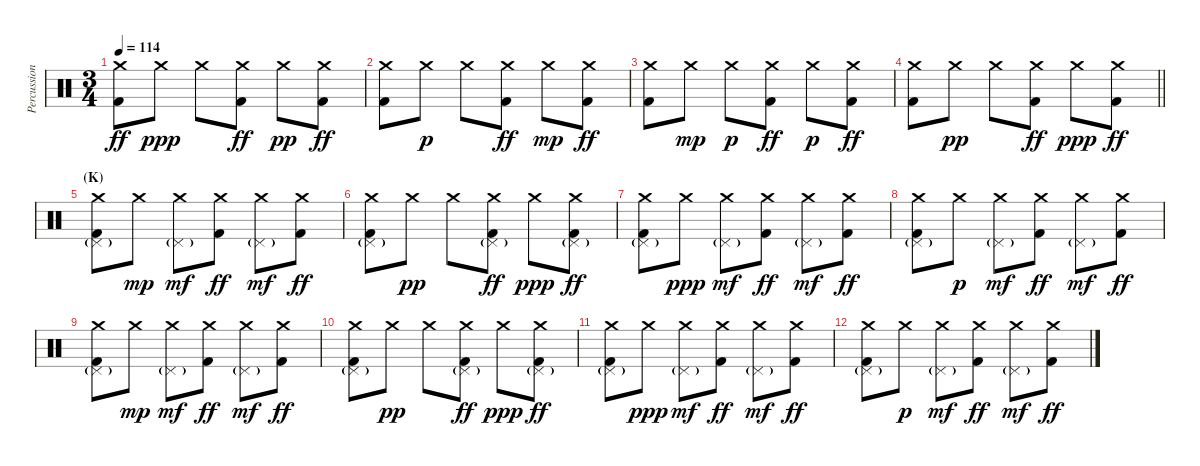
\track ("Percussion 1" "Percussion") {instrument percussion}
\staff {score}
\articulation defaults
\ts (3 4)
\tempo 114
\clef neutral
\ks c
("Crash medium (hit)" "Kick (hit) 2").8{dy ff} "Crash medium (hit)".8{dy ppp} "Crash medium (hit)".8 ("Crash medium (hit)" "Kick (hit) 2").8{dy ff} "Crash medium (hit)".8{dy pp} ("Crash medium (hit)" "Kick (hit) 2").8{dy ff} |
("Crash medium (hit)" "Kick (hit) 2").8 "Crash medium (hit)".8{dy p} "Crash medium (hit)".8 ("Crash medium (hit)" "Kick (hit) 2").8{dy ff} "Crash medium (hit)".8{dy mp} ("Crash medium (hit)" "Kick (hit) 2").8{dy ff} |
("Crash medium (hit)" "Kick (hit) 2").8 "Crash medium (hit)".8{dy mp} "Crash medium (hit)".8{dy p} ("Crash medium (hit)" "Kick (hit) 2").8{dy ff} "Crash medium (hit)".8{dy p} ("Crash medium (hit)" "Kick (hit) 2").8{dy ff} |
\barLineRight lightlight
("Crash medium (hit)" "Kick (hit) 2").8 "Crash medium (hit)".8{dy pp} "Crash medium (hit)".8 ("Crash medium (hit)" "Kick (hit) 2").8{dy ff} "Crash medium (hit)".8{dy ppp} ("Crash medium (hit)" "Kick (hit) 2").8{dy ff} |
\section ("" "(K)")
("Crash medium (hit)" "Pedal Hi-Hat (hit)"{g} "Kick (hit) 2").8 "Crash medium (hit)".8{dy mp} ("Crash medium (hit)" "Pedal Hi-Hat (hit)"{g}).8{dy mf} ("Crash medium (hit)" "Kick (hit) 2").8{dy ff} ("Crash medium (hit)" "Pedal Hi-Hat (hit)"{g}).8{dy mf} ("Crash medium (hit)" "Kick (hit) 2").8{dy ff} |
("Crash medium (hit)" "Pedal Hi-Hat (hit)"{g} "Kick (hit) 2").8 "Crash medium (hit)".8{dy pp} "Crash medium (hit)".8 ("Crash medium (hit)" "Pedal Hi-Hat (hit)"{g} "Kick (hit) 2").8{dy ff} "Crash medium (hit)".8{dy ppp} ("Crash medium (hit)" "Pedal Hi-Hat (hit)"{g} "Kick (hit) 2").8{dy ff} |
("Crash medium (hit)" "Pedal Hi-Hat (hit)"{g} "Kick (hit) 2").8 "Crash medium (hit)".8{dy ppp} ("Crash medium (hit)" "Pedal Hi-Hat (hit)"{g}).8{dy mf} ("Crash medium (hit)" "Kick (hit) 2").8{dy ff} ("Crash medium (hit)" "Pedal Hi-Hat (hit)"{g}).8{dy mf} ("Crash medium (hit)" "Kick (hit) 2").8{dy ff} |
("Crash medium (hit)" "Pedal Hi-Hat (hit)"{g} "Kick (hit) 2").8 "Crash medium (hit)".8{dy p} ("Crash medium (hit)" "Pedal Hi-Hat (hit)"{g}).8{dy mf} ("Crash medium (hit)" "Kick (hit) 2").8{dy ff} ("Crash medium (hit)" "Pedal Hi-Hat (hit)"{g}).8{dy mf} ("Crash medium (hit)" "Kick (hit) 2").8{dy ff} |
("Crash medium (hit)" "Pedal Hi-Hat (hit)"{g} "Kick (hit) 2").8 "Crash medium (hit)".8{dy mp} ("Crash medium (hit)" "Pedal Hi-Hat (hit)"{g}).8{dy mf} ("Crash medium (hit)" "Kick (hit) 2").8{dy ff} ("Crash medium (hit)" "Pedal Hi-Hat (hit)"{g}).8{dy mf} ("Crash medium (hit)" "Kick (hit) 2").8{dy ff} |
("Crash medium (hit)" "Pedal Hi-Hat (hit)"{g} "Kick (hit) 2").8 "Crash medium (hit)".8{dy pp} "Crash medium (hit)".8 ("Crash medium (hit)" "Pedal Hi-Hat (hit)"{g} "Kick (hit) 2").8{dy ff} "Crash medium (hit)".8{dy ppp} ("Crash medium (hit)" "Pedal Hi-Hat (hit)"{g} "Kick (hit) 2").8{dy ff} |
("Crash medium (hit)" "Pedal Hi-Hat (hit)"{g} "Kick (hit) 2").8 "Crash medium (hit)".8{dy ppp} ("Crash medium (hit)" "Pedal Hi-Hat (hit)"{g}).8{dy mf} ("Crash medium (hit)" "Kick (hit) 2").8{dy ff} ("Crash medium (hit)" "Pedal Hi-Hat (hit)"{g}).8{dy mf} ("Crash medium (hit)" "Kick (hit) 2").8{dy ff} |
("Crash medium (hit)" "Pedal Hi-Hat (hit)"{g} "Kick (hit) 2").8 "Crash medium (hit)".8{dy p} ("Crash medium (hit)" "Pedal Hi-Hat (hit)"{g}).8{dy mf} ("Crash medium (hit)" "Kick (hit) 2").8{dy ff} ("Crash medium (hit)" "Pedal Hi-Hat (hit)"{g}).8{dy mf} ("Crash medium (hit)" "Kick (hit) 2").8{dy ff}
